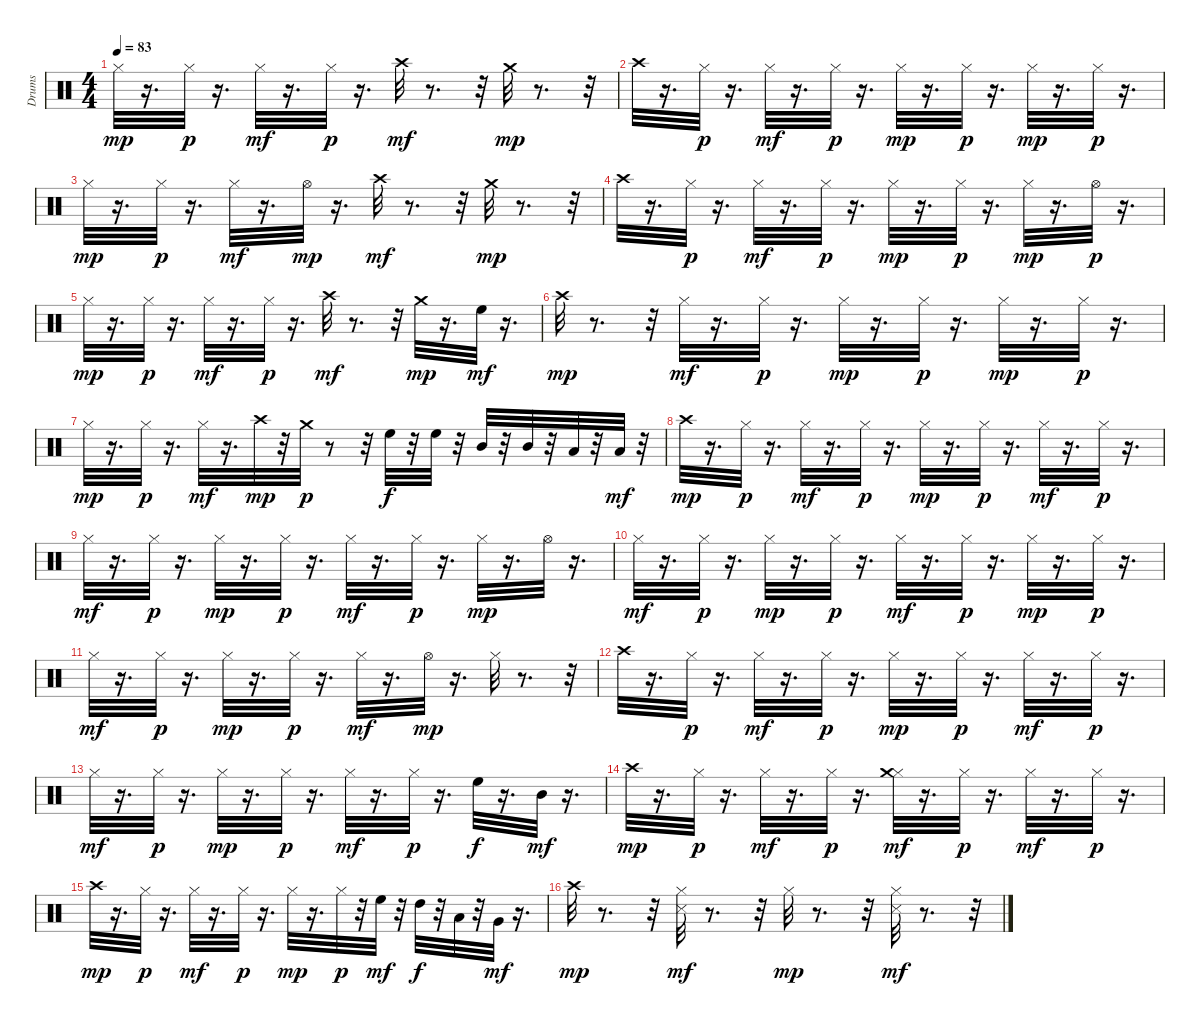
\track ("Drums" "Drums") {instrument percussion}
\staff {score}
\articulation defaults
\ts (4 4)
\tempo 83
\clef neutral
\ks c "Hi-Hat (closed)".32{dy mp}
r.16{d} "Hi-Hat (closed)".32{dy p} r.16{d} "Hi-Hat (closed)".32{dy mf} r.16{d} "Hi-Hat (closed)".32{dy p} r.16{d} "Crash high (hit)".32{dy mf} r.8{d} r.32 "Crash medium (hit)".32{dy mp} r.8{d} r.32 |
"Crash high (hit)".32 r.16{d} "Hi-Hat (closed)".32{dy p} r.16{d} "Hi-Hat (closed)".32{dy mf} r.16{d} "Hi-Hat (closed)".32{dy p} r.16{d} "Hi-Hat (closed)".32{dy mp} r.16{d} "Hi-Hat (closed)".32{dy p} r.16{d} "Hi-Hat (closed)".32{dy mp} r.16{d} "Hi-Hat (closed)".32{dy p} r.16{d} |
"Hi-Hat (closed)".32{dy mp} r.16{d} "Hi-Hat (closed)".32{dy p} r.16{d} "Hi-Hat (closed)".32{dy mf} r.16{d} "Hi-Hat (open)".32{dy mp} r.16{d} "Crash high (hit)".32{dy mf} r.8{d} r.32 "Crash medium (hit)".32{dy mp} r.8{d} r.32 |
"Crash high (hit)".32 r.16{d} "Hi-Hat (closed)".32{dy p} r.16{d} "Hi-Hat (closed)".32{dy mf} r.16{d} "Hi-Hat (closed)".32{dy p} r.16{d} "Hi-Hat (closed)".32{dy mp} r.16{d} "Hi-Hat (closed)".32{dy p} r.16{d} "Hi-Hat (closed)".32{dy mp} r.16{d} "Hi-Hat (open)".32{dy p} r.16{d} |
"Hi-Hat (closed)".32{dy mp} r.16{d} "Hi-Hat (closed)".32{dy p} r.16{d} "Hi-Hat (closed)".32{dy mf} r.16{d} "Hi-Hat (closed)".32{dy p} r.16{d} "Crash high (hit)".32{dy mf} r.8{d} r.32 "Crash medium (hit)".32{dy mp} r.16{d} "High Floor Tom (hit)".32{dy mf} r.16{d} |
"Crash high (hit)".32{dy mp} r.8{d} r.32 "Hi-Hat (closed)".32{dy mf} r.16{d} "Hi-Hat (closed)".32{dy p} r.16{d} "Hi-Hat (closed)".32{dy mp} r.16{d} "Hi-Hat (closed)".32{dy p} r.16{d} "Hi-Hat (closed)".32{dy mp} r.16{d} "Hi-Hat (closed)".32{dy p} r.16{d} |
"Hi-Hat (closed)".32{dy mp} r.16{d} "Hi-Hat (closed)".32{dy p} r.16{d} "Hi-Hat (closed)".32{dy mf} r.16{d} "Crash high (hit)".32{dy mp} r.32 "Crash medium (hit)".32{dy p} r.8 r.32 "High Floor Tom (hit)".32{dy f} r.32 "High Floor Tom (hit)".32 r.32 "Mid Tom (hit)".32 r.32 "Mid Tom (hit)".32 r.32 "Low Tom (hit)".32 r.32 "Low Tom (hit)".32{dy mf} r.32 |
"Crash high (hit)".32{dy mp} r.16{d} "Hi-Hat (closed)".32{dy p} r.16{d} "Hi-Hat (closed)".32{dy mf} r.16{d} "Hi-Hat (closed)".32{dy p} r.16{d} "Hi-Hat (closed)".32{dy mp} r.16{d} "Hi-Hat (closed)".32{dy p} r.16{d} "Hi-Hat (closed)".32{dy mf} r.16{d} "Hi-Hat (closed)".32{dy p} r.16{d} |
"Hi-Hat (closed)".32{dy mf} r.16{d} "Hi-Hat (closed)".32{dy p} r.16{d} "Hi-Hat (closed)".32{dy mp} r.16{d} "Hi-Hat (closed)".32{dy p} r.16{d} "Hi-Hat (closed)".32{dy mf} r.16{d} "Hi-Hat (closed)".32{dy p} r.16{d} "Hi-Hat (closed)".32{dy mp} r.16{d} "Hi-Hat (open)".32 r.16{d} |
"Hi-Hat (closed)".32{dy mf} r.16{d} "Hi-Hat (closed)".32{dy p} r.16{d} "Hi-Hat (closed)".32{dy mp} r.16{d} "Hi-Hat (closed)".32{dy p} r.16{d} "Hi-Hat (closed)".32{dy mf} r.16{d} "Hi-Hat (closed)".32{dy p} r.16{d} "Hi-Hat (closed)".32{dy mp} r.16{d} "Hi-Hat (closed)".32{dy p} r.16{d} |
"Hi-Hat (closed)".32{dy mf} r.16{d} "Hi-Hat (closed)".32{dy p} r.16{d} "Hi-Hat (closed)".32{dy mp} r.16{d} "Hi-Hat (closed)".32{dy p} r.16{d} "Hi-Hat (closed)".32{dy mf} r.16{d} "Hi-Hat (open)".32{dy mp} r.16{d} "Hi-Hat (closed)".32 r.8{d} r.32 |
"Crash high (hit)".32 r.16{d} "Hi-Hat (closed)".32{dy p} r.16{d} "Hi-Hat (closed)".32{dy mf} r.16{d} "Hi-Hat (closed)".32{dy p} r.16{d} "Hi-Hat (closed)".32{dy mp} r.16{d} "Hi-Hat (closed)".32{dy p} r.16{d} "Hi-Hat (closed)".32{dy mf} r.16{d} "Hi-Hat (closed)".32{dy p} r.16{d} |
"Hi-Hat (closed)".32{dy mf} r.16{d} "Hi-Hat (closed)".32{dy p} r.16{d} "Hi-Hat (closed)".32{dy mp} r.16{d} "Hi-Hat (closed)".32{dy p} r.16{d} "Hi-Hat (closed)".32{dy mf} r.16{d} "Hi-Hat (closed)".32{dy p} r.16{d} "High Floor Tom (hit)".32{dy f} r.16{d} "Mid Tom (hit)".32{dy mf} r.16{d} |
"Crash high (hit)".32{dy mp} r.16{d} "Hi-Hat (closed)".32{dy p} r.16{d} "Hi-Hat (closed)".32{dy mf} r.16{d} "Hi-Hat (closed)".32{dy p} r.16{d} ("Hi-Hat (closed)" "Crash medium (hit)").32{dy mf} r.16{d} "Hi-Hat (closed)".32{dy p} r.16{d} "Hi-Hat (closed)".32{dy mf} r.16{d} "Hi-Hat (closed)".32{dy p} r.16{d} |
"Crash high (hit)".32{dy mp} r.16{d} "Hi-Hat (closed)".32{dy p} r.16{d} "Hi-Hat (closed)".32{dy mf} r.16{d} "Hi-Hat (closed)".32{dy p} r.16{d} "Hi-Hat (closed)".32{dy mp} r.16{d} "Hi-Hat (closed)".32{dy p} r.32 "High Floor Tom (hit)".32{dy mf} r.32 "High Tom (hit)".32{dy f} r.32 "Low Tom (hit)".32 r.32 "Very Low Tom (hit)".32{dy mf} r.16{d} |
"Crash high (hit)".32{dy mp} r.8{d} r.32 ("Hi-Hat (closed)" "Snare (side stick) 3").32{dy mf} r.8{d} r.32 "Hi-Hat (closed)".32{dy mp} r.8{d} r.32 ("Hi-Hat (closed)" "Snare (side stick) 3").32{dy mf} r.8{d} r.32
